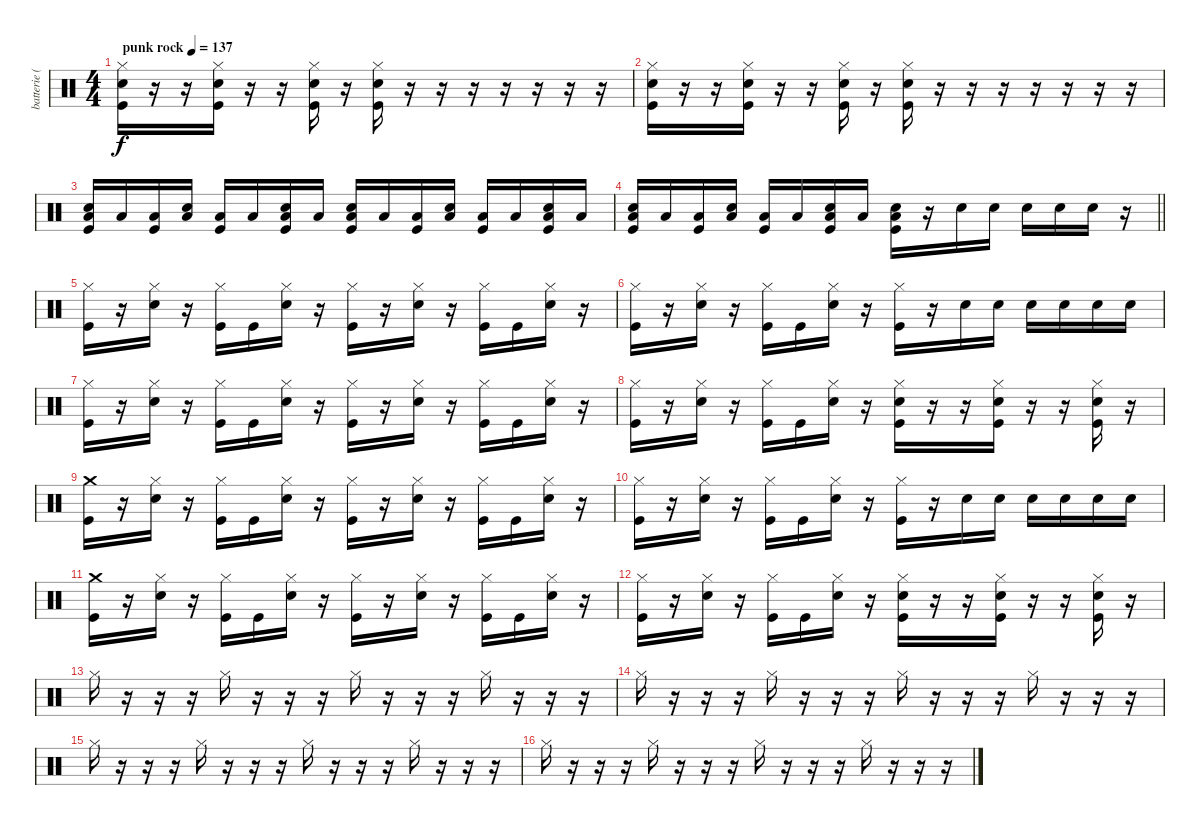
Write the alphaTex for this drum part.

\track ("batterie ( Reed ) " "batterie (") {instrument percussion}
\staff {score}
\articulation defaults
\ts (4 4)
\tempo (137 "punk rock")
\clef neutral
\ks c
("Hi-Hat (closed)" "Snare (hit) 2" "Kick (hit)").16{dy f} r.16 r.16 ("Hi-Hat (closed)" "Snare (hit) 2" "Kick (hit)").16 r.16 r.16 ("Hi-Hat (closed)" "Snare (hit) 2" "Kick (hit)").16 r.16 ("Hi-Hat (closed)" "Snare (hit) 2" "Kick (hit)").16 r.16 r.16 r.16 r.16 r.16 r.16 r.16 |
("Hi-Hat (closed)" "Snare (hit) 2" "Kick (hit)").16 r.16 r.16 ("Hi-Hat (closed)" "Snare (hit) 2" "Kick (hit)").16 r.16 r.16 ("Hi-Hat (closed)" "Snare (hit) 2" "Kick (hit)").16 r.16 ("Hi-Hat (closed)" "Snare (hit) 2" "Kick (hit)").16 r.16 r.16 r.16 r.16 r.16 r.16 r.16 |
("Low Floor Tom (hit)" "Snare (hit) 2" "Kick (hit)").16 "Low Floor Tom (hit)".16 ("Low Floor Tom (hit)" "Kick (hit)").16 ("Low Floor Tom (hit)" "Snare (hit) 2").16 ("Low Floor Tom (hit)" "Kick (hit)").16 "Low Floor Tom (hit)".16 ("Low Floor Tom (hit)" "Snare (hit) 2" "Kick (hit)").16 "Low Floor Tom (hit)".16 ("Low Floor Tom (hit)" "Snare (hit) 2" "Kick (hit)").16 "Low Floor Tom (hit)".16 ("Low Floor Tom (hit)" "Kick (hit)").16 ("Low Floor Tom (hit)" "Snare (hit) 2").16 ("Low Floor Tom (hit)" "Kick (hit)").16 "Low Floor Tom (hit)".16 ("Low Floor Tom (hit)" "Snare (hit) 2" "Kick (hit)").16 "Low Floor Tom (hit)".16 |
\barLineRight lightlight
("Low Floor Tom (hit)" "Snare (hit) 2" "Kick (hit)").16 "Low Floor Tom (hit)".16 ("Low Floor Tom (hit)" "Kick (hit)").16 ("Low Floor Tom (hit)" "Snare (hit) 2").16 ("Low Floor Tom (hit)" "Kick (hit)").16 "Low Floor Tom (hit)".16 ("Low Floor Tom (hit)" "Snare (hit) 2" "Kick (hit)").16 "Low Floor Tom (hit)".16 ("Low Floor Tom (hit)" "Snare (hit) 2" "Kick (hit)").16 r.16 "Snare (hit) 2".16 "Snare (hit) 2".16 "Snare (hit) 2".16 "Snare (hit) 2".16 "Snare (hit) 2".16 r.16 |
("Hi-Hat (closed)" "Kick (hit)").16 r.16 ("Hi-Hat (closed)" "Snare (hit) 2").16 r.16 ("Hi-Hat (closed)" "Kick (hit)").16 "Kick (hit)".16 ("Hi-Hat (closed)" "Snare (hit) 2").16 r.16 ("Hi-Hat (closed)" "Kick (hit)").16 r.16 ("Hi-Hat (closed)" "Snare (hit) 2").16 r.16 ("Hi-Hat (closed)" "Kick (hit)").16 "Kick (hit)".16 ("Hi-Hat (closed)" "Snare (hit) 2").16 r.16 |
("Hi-Hat (closed)" "Kick (hit)").16 r.16 ("Hi-Hat (closed)" "Snare (hit) 2").16 r.16 ("Hi-Hat (closed)" "Kick (hit)").16 "Kick (hit)".16 ("Hi-Hat (closed)" "Snare (hit) 2").16 r.16 ("Hi-Hat (closed)" "Kick (hit)").16 r.16 "Snare (hit) 2".16 "Snare (hit) 2".16 "Snare (hit) 2".16 "Snare (hit) 2".16 "Snare (hit) 2".16 "Snare (hit) 2".16 |
("Hi-Hat (closed)" "Kick (hit)").16 r.16 ("Hi-Hat (closed)" "Snare (hit) 2").16 r.16 ("Hi-Hat (closed)" "Kick (hit)").16 "Kick (hit)".16 ("Hi-Hat (closed)" "Snare (hit) 2").16 r.16 ("Hi-Hat (closed)" "Kick (hit)").16 r.16 ("Hi-Hat (closed)" "Snare (hit) 2").16 r.16 ("Hi-Hat (closed)" "Kick (hit)").16 "Kick (hit)".16 ("Hi-Hat (closed)" "Snare (hit) 2").16 r.16 |
("Hi-Hat (closed)" "Kick (hit)").16 r.16 ("Hi-Hat (closed)" "Snare (hit) 2").16 r.16 ("Hi-Hat (closed)" "Kick (hit)").16 "Kick (hit)".16 ("Hi-Hat (closed)" "Snare (hit) 2").16 r.16 ("Hi-Hat (closed)" "Snare (hit) 2" "Kick (hit)").16 r.16 r.16 ("Hi-Hat (closed)" "Snare (hit) 2" "Kick (hit)").16 r.16 r.16 ("Hi-Hat (closed)" "Snare (hit) 2" "Kick (hit)").16 r.16 |
("Crash medium (hit)" "Kick (hit)").16 r.16 ("Hi-Hat (closed)" "Snare (hit) 2").16 r.16 ("Hi-Hat (closed)" "Kick (hit)").16 "Kick (hit)".16 ("Hi-Hat (closed)" "Snare (hit) 2").16 r.16 ("Hi-Hat (closed)" "Kick (hit)").16 r.16 ("Hi-Hat (closed)" "Snare (hit) 2").16 r.16 ("Hi-Hat (closed)" "Kick (hit)").16 "Kick (hit)".16 ("Hi-Hat (closed)" "Snare (hit) 2").16 r.16 |
("Hi-Hat (closed)" "Kick (hit)").16 r.16 ("Hi-Hat (closed)" "Snare (hit) 2").16 r.16 ("Hi-Hat (closed)" "Kick (hit)").16 "Kick (hit)".16 ("Hi-Hat (closed)" "Snare (hit) 2").16 r.16 ("Hi-Hat (closed)" "Kick (hit)").16 r.16 "Snare (hit) 2".16 "Snare (hit) 2".16 "Snare (hit) 2".16 "Snare (hit) 2".16 "Snare (hit) 2".16 "Snare (hit) 2".16 |
("Crash medium (hit)" "Kick (hit)").16 r.16 ("Hi-Hat (closed)" "Snare (hit) 2").16 r.16 ("Hi-Hat (closed)" "Kick (hit)").16 "Kick (hit)".16 ("Hi-Hat (closed)" "Snare (hit) 2").16 r.16 ("Hi-Hat (closed)" "Kick (hit)").16 r.16 ("Hi-Hat (closed)" "Snare (hit) 2").16 r.16 ("Hi-Hat (closed)" "Kick (hit)").16 "Kick (hit)".16 ("Hi-Hat (closed)" "Snare (hit) 2").16 r.16 |
("Hi-Hat (closed)" "Kick (hit)").16 r.16 ("Hi-Hat (closed)" "Snare (hit) 2").16 r.16 ("Hi-Hat (closed)" "Kick (hit)").16 "Kick (hit)".16 ("Hi-Hat (closed)" "Snare (hit) 2").16 r.16 ("Hi-Hat (closed)" "Snare (hit) 2" "Kick (hit)").16 r.16 r.16 ("Hi-Hat (closed)" "Snare (hit) 2" "Kick (hit)").16 r.16 r.16 ("Hi-Hat (closed)" "Snare (hit) 2" "Kick (hit)").16 r.16 |
"Hi-Hat (closed)".16 r.16 r.16 r.16 "Hi-Hat (closed)".16 r.16 r.16 r.16 "Hi-Hat (closed)".16 r.16 r.16 r.16 "Hi-Hat (closed)".16 r.16 r.16 r.16 |
"Hi-Hat (closed)".16 r.16 r.16 r.16 "Hi-Hat (closed)".16 r.16 r.16 r.16 "Hi-Hat (closed)".16 r.16 r.16 r.16 "Hi-Hat (closed)".16 r.16 r.16 r.16 |
"Hi-Hat (closed)".16 r.16 r.16 r.16 "Hi-Hat (closed)".16 r.16 r.16 r.16 "Hi-Hat (closed)".16 r.16 r.16 r.16 "Hi-Hat (closed)".16 r.16 r.16 r.16 |
"Hi-Hat (closed)".16 r.16 r.16 r.16 "Hi-Hat (closed)".16 r.16 r.16 r.16 "Hi-Hat (closed)".16 r.16 r.16 r.16 "Hi-Hat (closed)".16 r.16 r.16 r.16
